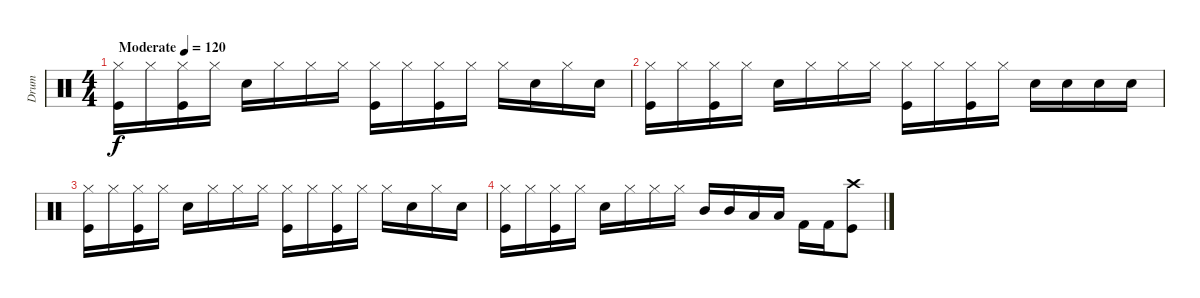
\track ("Drum" "Drum") {instrument percussion}
\staff {score}
\articulation defaults
\ts (4 4)
\tempo (120 "Moderate")
\clef neutral
\ks c
("Hi-Hat (closed)" "Kick (hit)").16{dy f} "Hi-Hat (closed)".16 ("Hi-Hat (closed)" "Kick (hit)").16 "Hi-Hat (closed)".16 "Electric Snare (hit)".16 "Hi-Hat (closed)".16 "Hi-Hat (closed)".16 "Hi-Hat (closed)".16 ("Hi-Hat (closed)" "Kick (hit)").16 "Hi-Hat (closed)".16 ("Hi-Hat (closed)" "Kick (hit)").16 "Hi-Hat (closed)".16 "Hi-Hat (closed)".16 "Electric Snare (hit)".16 "Hi-Hat (closed)".16 "Electric Snare (hit)".16 |
("Hi-Hat (closed)" "Kick (hit)").16 "Hi-Hat (closed)".16 ("Hi-Hat (closed)" "Kick (hit)").16 "Hi-Hat (closed)".16 "Electric Snare (hit)".16 "Hi-Hat (closed)".16 "Hi-Hat (closed)".16 "Hi-Hat (closed)".16 ("Hi-Hat (closed)" "Kick (hit)").16 "Hi-Hat (closed)".16 ("Hi-Hat (closed)" "Kick (hit)").16 "Hi-Hat (closed)".16 "Electric Snare (hit)".16 "Electric Snare (hit)".16 "Electric Snare (hit)".16 "Electric Snare (hit)".16 |
("Hi-Hat (closed)" "Kick (hit)").16 "Hi-Hat (closed)".16 ("Hi-Hat (closed)" "Kick (hit)").16 "Hi-Hat (closed)".16 "Electric Snare (hit)".16 "Hi-Hat (closed)".16 "Hi-Hat (closed)".16 "Hi-Hat (closed)".16 ("Hi-Hat (closed)" "Kick (hit)").16 "Hi-Hat (closed)".16 ("Hi-Hat (closed)" "Kick (hit)").16 "Hi-Hat (closed)".16 "Hi-Hat (closed)".16 "Electric Snare (hit)".16 "Hi-Hat (closed)".16 "Electric Snare (hit)".16 |
("Hi-Hat (closed)" "Kick (hit)").16 "Hi-Hat (closed)".16 ("Hi-Hat (closed)" "Kick (hit)").16 "Hi-Hat (closed)".16 "Electric Snare (hit)".16 "Hi-Hat (closed)".16 "Hi-Hat (closed)".16 "Hi-Hat (closed)".16 "Mid Tom (hit)".16 "Mid Tom (hit)".16 "Low Tom (hit)".16 "Low Tom (hit)".16 "Kick (hit) 2".16 "Kick (hit) 2".16 ("Crash high (hit)" "Kick (hit)").8
